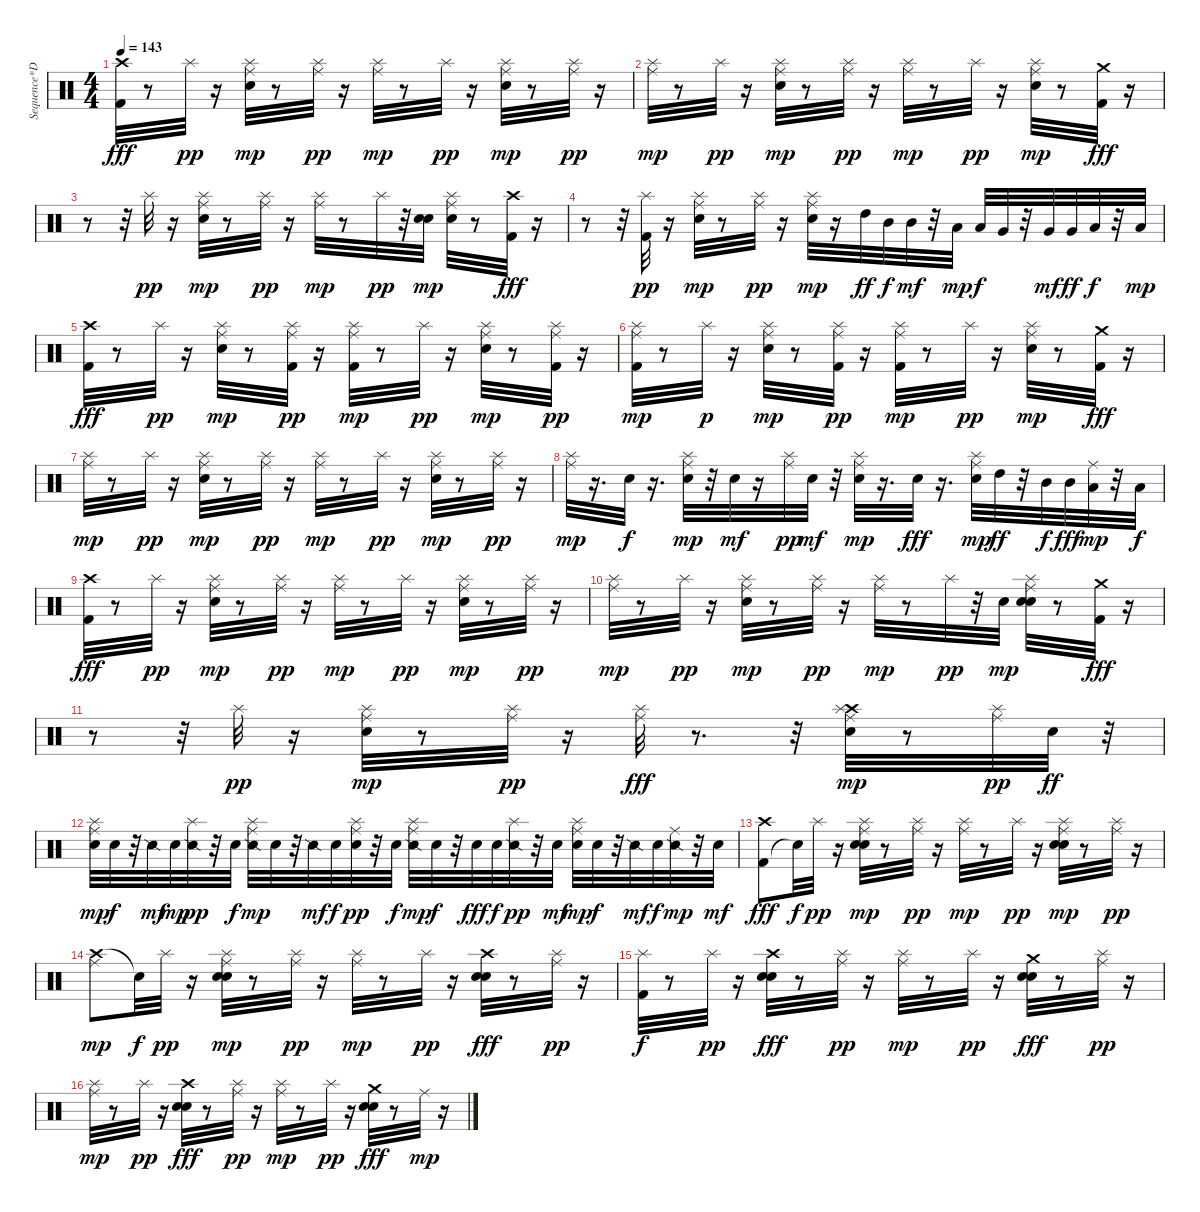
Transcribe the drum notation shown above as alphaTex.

\track ("Sequence*Demixed 10" "Sequence*D") {instrument percussion}
\staff {score}
\articulation defaults
\ts (4 4)
\tempo 143
\clef neutral
\ks c
("Kick (hit) 2" "Crash high (hit)").32{dy fff} r.8 "Splash (hit)".32{dy pp} r.16 ("Electric Snare (hit)" "Ride (middle)" "Splash (hit)").32{dy mp} r.8 ("Ride (middle)" "Splash (hit)").32{dy pp} r.16 ("Ride (middle)" "Splash (hit)").32{dy mp} r.8 "Splash (hit)".32{dy pp} r.16 ("Electric Snare (hit)" "Ride (middle)" "Splash (hit)").32{dy mp} r.8 ("Ride (middle)" "Splash (hit)").32{dy pp} r.16 |
("Ride (middle)" "Splash (hit)").32{dy mp} r.8 "Splash (hit)".32{dy pp} r.16 ("Electric Snare (hit)" "Ride (middle)" "Splash (hit)").32{dy mp} r.8 ("Ride (middle)" "Splash (hit)").32{dy pp} r.16 ("Ride (middle)" "Splash (hit)").32{dy mp} r.8 "Splash (hit)".32{dy pp} r.16 ("Electric Snare (hit)" "Ride (middle)" "Splash (hit)").32{dy mp} r.8 ("Kick (hit) 2" "Crash medium (hit)").32{dy fff} r.16 |
r.8 r.32 "Splash (hit)".32{dy pp} r.16 ("Electric Snare (hit)" "Ride (middle)" "Splash (hit)").32{dy mp} r.8 ("Ride (middle)" "Splash (hit)").32{dy pp} r.16 ("Ride (middle)" "Splash (hit)").32{dy mp} r.8 "Splash (hit)".32{dy pp} r.32 ("Electric Snare (hit)" "Electric Snare (hit)").32{dy mp} ("Electric Snare (hit)" "Ride (middle)" "Splash (hit)").32 r.8 ("Kick (hit) 2" "Crash high (hit)").32{dy fff} r.16 |
r.8 r.32 ("Kick (hit) 2" "Splash (hit)").32{dy pp} r.16 ("Electric Snare (hit)" "Ride (middle)" "Splash (hit)").32{dy mp} r.8 ("Ride (middle)" "Splash (hit)").32{dy pp} r.16 ("Metronome (bell)" "Ride (middle)" "Splash (hit)").32{dy mp} r.16 "High Tom (hit)".32{dy ff} "Mid Tom (hit)".32{dy f} "Mid Tom (hit)".32{dy mf} r.32 "Low Tom (hit)".32{dy mp} "Low Tom (hit)".32{dy f} "Very Low Tom (hit)".32 r.32 "Very Low Tom (hit)".32{dy mf} "Very Low Tom (hit)".32{dy ff} "Low Floor Tom (hit)".32{dy f} r.32 "Low Floor Tom (hit)".32{dy mp} |
("Kick (hit) 2" "Crash high (hit)").32{dy fff} r.8 "Splash (hit)".32{dy pp} r.16 ("Electric Snare (hit)" "Ride (middle)" "Splash (hit)").32{dy mp} r.8 ("Kick (hit) 2" "Ride (middle)" "Splash (hit)").32{dy pp} r.16 ("Kick (hit) 2" "Ride (middle)" "Splash (hit)").32{dy mp} r.8 "Splash (hit)".32{dy pp} r.16 ("Electric Snare (hit)" "Ride (middle)" "Splash (hit)").32{dy mp} r.8 ("Kick (hit) 2" "Ride (middle)" "Splash (hit)").32{dy pp} r.16 |
("Kick (hit) 2" "Ride (middle)" "Splash (hit)").32{dy mp} r.8 "Splash (hit)".32{dy p} r.16 ("Electric Snare (hit)" "Ride (middle)" "Splash (hit)").32{dy mp} r.8 ("Kick (hit) 2" "Ride (middle)" "Splash (hit)").32{dy pp} r.16 ("Kick (hit) 2" "Ride (middle)" "Splash (hit)").32{dy mp} r.8 "Splash (hit)".32{dy pp} r.16 ("Electric Snare (hit)" "Ride (middle)" "Splash (hit)").32{dy mp} r.8 ("Kick (hit) 2" "Crash medium (hit)").32{dy fff} r.16 |
("Ride (middle)" "Splash (hit)").32{dy mp} r.8 "Splash (hit)".32{dy pp} r.16 ("Electric Snare (hit)" "Ride (middle)" "Splash (hit)").32{dy mp} r.8 ("Ride (middle)" "Splash (hit)").32{dy pp} r.16 ("Ride (middle)" "Splash (hit)").32{dy mp} r.8 "Splash (hit)".32{dy pp} r.16 ("Electric Snare (hit)" "Ride (middle)" "Splash (hit)").32{dy mp} r.8 ("Ride (middle)" "Splash (hit)").32{dy pp} r.16 |
("Ride (middle)" "Splash (hit)").32{dy mp} r.16{d} "Electric Snare (hit)".32{dy f} r.16{d} ("Electric Snare (hit)" "Ride (middle)" "Splash (hit)").32{dy mp} r.32 "Electric Snare (hit)".32{dy mf} r.16 ("Ride (middle)" "Splash (hit)").32{dy pp} "Electric Snare (hit)".32{dy mf} r.32 ("Electric Snare (hit)" "Ride (middle)" "Splash (hit)").32{dy mp} r.16{d} "Electric Snare (hit)".32{dy fff} r.16{d} ("Electric Snare (hit)" "Ride (middle)" "Splash (hit)").32{dy mp} "High Tom (hit)".32{dy ff} r.32 "Mid Tom (hit)".32{dy f} "Mid Tom (hit)".32{dy fff} ("Low Tom (hit)" "Ride (middle)").32{dy mp} r.32 "Low Tom (hit)".32{dy f} |
("Kick (hit) 2" "Crash high (hit)").32{dy fff} r.8 "Splash (hit)".32{dy pp} r.16 ("Electric Snare (hit)" "Ride (middle)" "Splash (hit)").32{dy mp} r.8 ("Ride (middle)" "Splash (hit)").32{dy pp} r.16 ("Ride (middle)" "Splash (hit)").32{dy mp} r.8 "Splash (hit)".32{dy pp} r.16 ("Electric Snare (hit)" "Ride (middle)" "Splash (hit)").32{dy mp} r.8 ("Ride (middle)" "Splash (hit)").32{dy pp} r.16 |
("Ride (middle)" "Splash (hit)").32{dy mp} r.8 "Splash (hit)".32{dy pp} r.16 ("Electric Snare (hit)" "Ride (middle)" "Splash (hit)").32{dy mp} r.8 ("Ride (middle)" "Splash (hit)").32{dy pp} r.16 ("Ride (middle)" "Splash (hit)").32{dy mp} r.8 "Splash (hit)".32{dy pp} r.32 "Snare (hit) 2".32{dy mp} ("Snare (hit) 2" "Electric Snare (hit)" "Ride (middle)" "Splash (hit)").32 r.8 ("Kick (hit) 2" "Crash medium (hit)").32{dy fff} r.16 |
r.8 r.32 "Splash (hit)".32{dy pp} r.16 ("Electric Snare (hit)" "Ride (middle)" "Splash (hit)").32{dy mp} r.8 ("Ride (middle)" "Splash (hit)").32{dy pp} r.16 ("Ride (middle)" "Splash (hit)").32{dy fff} r.8{d} r.32 ("Electric Snare (hit)" "Crash high (hit)" "Ride (middle)" "Splash (hit)").32{dy mp} r.8 ("Ride (middle)" "Splash (hit)").32{dy pp} "Electric Snare (hit)".32{dy ff} r.32 |
("Metronome (bell)" "Ride (middle)" "Splash (hit)").32{dy mp} "Electric Snare (hit)".32{dy f} r.32 "Snare (side stick) 2".32{dy mf} "Electric Snare (hit)".32{dy mp} ("Snare (side stick) 2" "Splash (hit)").32{dy pp} r.32 "Electric Snare (hit)".32{dy f} ("Snare (side stick) 2" "Ride (middle)" "Splash (hit)").32{dy mp} "Electric Snare (hit)".32 r.32 "Snare (side stick) 2".32{dy mf} "Electric Snare (hit)".32{dy f} ("Metronome (bell)" "Ride (middle)" "Splash (hit)").32{dy pp} r.32 "Electric Snare (hit)".32{dy f} ("Snare (side stick) 2" "Ride (middle)" "Splash (hit)").32{dy mp} "Electric Snare (hit)".32{dy f} r.32 "Metronome (bell)".32{dy fff} "Electric Snare (hit)".32{dy f} ("Snare (side stick) 2" "Splash (hit)").32{dy pp} r.32 "Electric Snare (hit)".32{dy mf} ("Metronome (bell)" "Ride (middle)" "Splash (hit)").32{dy mp} "Electric Snare (hit)".32{dy f} r.32 "Snare (side stick) 2".32{dy mf} "Electric Snare (hit)".32{dy f} ("Snare (side stick) 2" "Ride (middle)").32{dy mp} r.32 "Electric Snare (hit)".32{dy mf} |
("Kick (hit) 2" "Crash high (hit)").8{dy fff} "Snare (hit)"{t}.32{dy f} "Splash (hit)".32{dy pp} r.16 ("Metronome (bell)" "Electric Snare (hit)" "Ride (middle)" "Splash (hit)").32{dy mp} r.8 ("Ride (middle)" "Splash (hit)").32{dy pp} r.16 ("Ride (middle)" "Splash (hit)").32{dy mp} r.8 "Splash (hit)".32{dy pp} r.16 ("Metronome (bell)" "Electric Snare (hit)" "Ride (middle)" "Splash (hit)").32{dy mp} r.8 ("Ride (middle)" "Splash (hit)").32{dy pp} r.16 |
("Crash high (hit)" "Ride (middle)").8{dy mp} "Snare (hit)"{t}.32{dy f} "Splash (hit)".32{dy pp} r.16 ("Metronome (bell)" "Electric Snare (hit)" "Ride (middle)" "Splash (hit)").32{dy mp} r.8 ("Ride (middle)" "Splash (hit)").32{dy pp} r.16 ("Ride (middle)" "Splash (hit)").32{dy mp} r.8 "Splash (hit)".32{dy pp} r.16 ("Metronome (bell)" "Electric Snare (hit)" "Crash high (hit)").32{dy fff} r.8 ("Ride (middle)" "Splash (hit)").32{dy pp} r.16 |
("Kick (hit) 2" "Splash (hit)").32{dy f} r.8 "Splash (hit)".32{dy pp} r.16 ("Metronome (bell)" "Electric Snare (hit)" "Crash high (hit)").32{dy fff} r.8 ("Ride (middle)" "Splash (hit)").32{dy pp} r.16 ("Ride (middle)" "Splash (hit)").32{dy mp} r.8 "Splash (hit)".32{dy pp} r.16 ("Metronome (bell)" "Electric Snare (hit)" "Crash medium (hit)").32{dy fff} r.8 ("Ride (middle)" "Splash (hit)").32{dy pp} r.16 |
("Ride (middle)" "Splash (hit)").32{dy mp} r.8 "Splash (hit)".32{dy pp} r.16 ("Metronome (bell)" "Electric Snare (hit)" "Crash high (hit)").32{dy fff} r.8 ("Ride (middle)" "Splash (hit)").32{dy pp} r.16 ("Ride (middle)" "Splash (hit)").32{dy mp} r.8 "Splash (hit)".32{dy pp} r.16 ("Metronome (bell)" "Electric Snare (hit)" "Crash medium (hit)").32{dy fff} r.8 "Ride (middle)".32{dy mp} r.16
